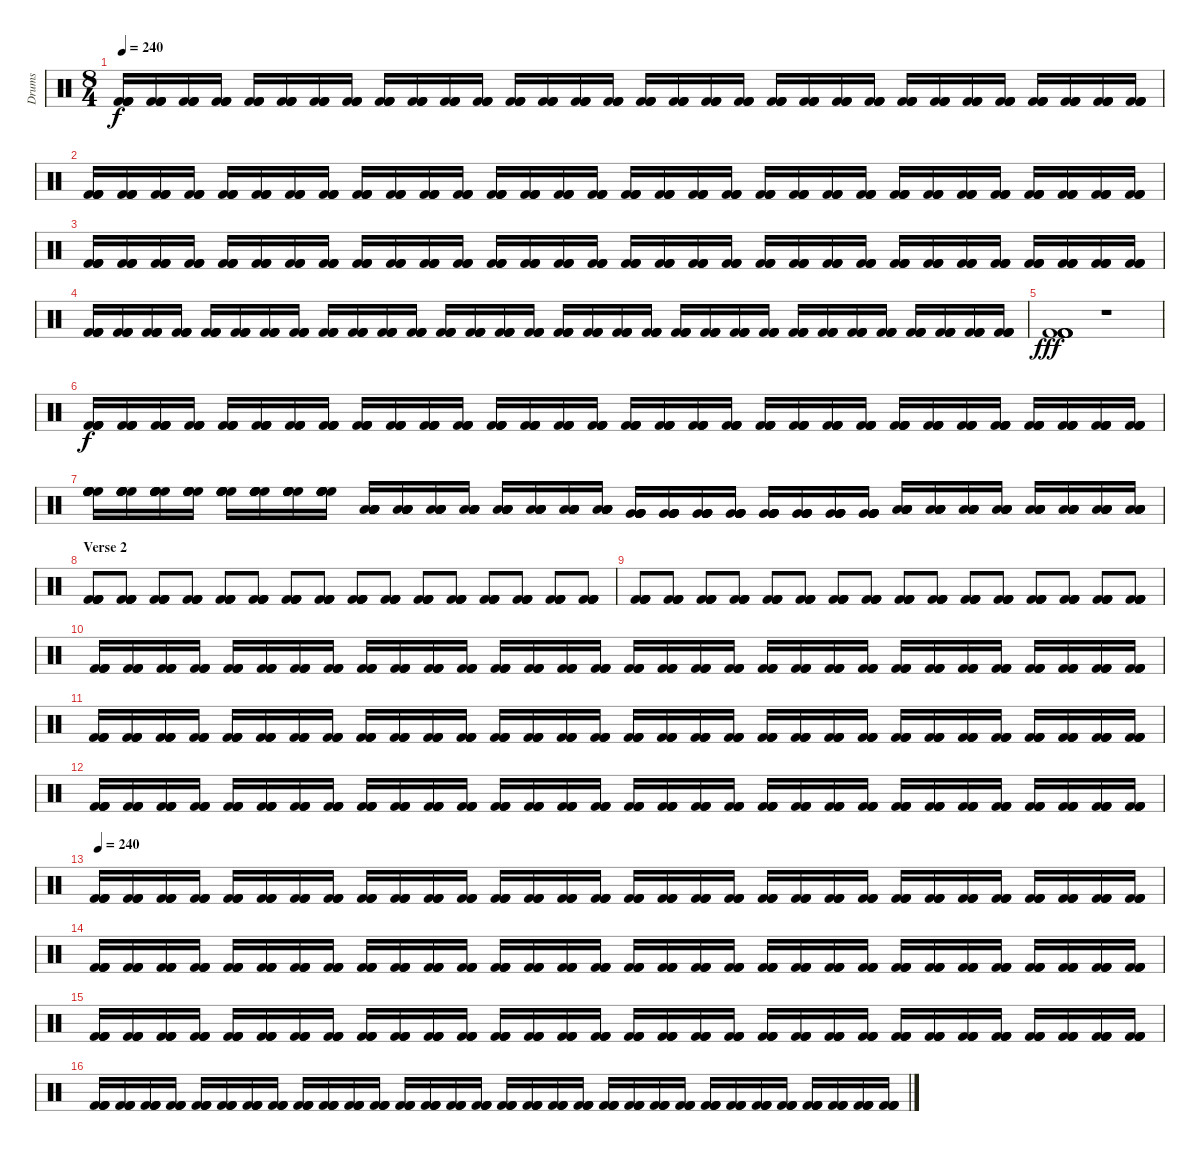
\track ("Drums" "Drums") {instrument percussion}
\staff {score}
\articulation defaults
\ts (8 4)
\tempo 240
\clef neutral
\ks c
("Kick (hit) 2" "Kick (hit) 2" "Kick (hit) 2" "Kick (hit) 2").16{dy f} ("Kick (hit) 2" "Kick (hit) 2" "Kick (hit) 2" "Kick (hit) 2").16 ("Kick (hit) 2" "Kick (hit) 2" "Kick (hit) 2" "Kick (hit) 2").16 ("Kick (hit) 2" "Kick (hit) 2" "Kick (hit) 2" "Kick (hit) 2").16 ("Kick (hit) 2" "Kick (hit) 2" "Kick (hit) 2" "Kick (hit) 2").16 ("Kick (hit) 2" "Kick (hit) 2" "Kick (hit) 2" "Kick (hit) 2").16 ("Kick (hit) 2" "Kick (hit) 2" "Kick (hit) 2" "Kick (hit) 2").16 ("Kick (hit) 2" "Kick (hit) 2" "Kick (hit) 2" "Kick (hit) 2").16 ("Kick (hit) 2" "Kick (hit) 2" "Kick (hit) 2" "Kick (hit) 2").16 ("Kick (hit) 2" "Kick (hit) 2" "Kick (hit) 2" "Kick (hit) 2").16 ("Kick (hit) 2" "Kick (hit) 2" "Kick (hit) 2" "Kick (hit) 2").16 ("Kick (hit) 2" "Kick (hit) 2" "Kick (hit) 2" "Kick (hit) 2").16 ("Kick (hit) 2" "Kick (hit) 2" "Kick (hit) 2" "Kick (hit) 2").16 ("Kick (hit) 2" "Kick (hit) 2" "Kick (hit) 2" "Kick (hit) 2").16 ("Kick (hit) 2" "Kick (hit) 2" "Kick (hit) 2" "Kick (hit) 2").16 ("Kick (hit) 2" "Kick (hit) 2" "Kick (hit) 2" "Kick (hit) 2").16 ("Kick (hit) 2" "Kick (hit) 2" "Kick (hit) 2" "Kick (hit) 2").16 ("Kick (hit) 2" "Kick (hit) 2" "Kick (hit) 2" "Kick (hit) 2").16 ("Kick (hit) 2" "Kick (hit) 2" "Kick (hit) 2" "Kick (hit) 2").16 ("Kick (hit) 2" "Kick (hit) 2" "Kick (hit) 2" "Kick (hit) 2").16 ("Kick (hit) 2" "Kick (hit) 2" "Kick (hit) 2" "Kick (hit) 2").16 ("Kick (hit) 2" "Kick (hit) 2" "Kick (hit) 2" "Kick (hit) 2").16 ("Kick (hit) 2" "Kick (hit) 2" "Kick (hit) 2" "Kick (hit) 2").16 ("Kick (hit) 2" "Kick (hit) 2" "Kick (hit) 2" "Kick (hit) 2").16 ("Kick (hit) 2" "Kick (hit) 2" "Kick (hit) 2" "Kick (hit) 2").16 ("Kick (hit) 2" "Kick (hit) 2" "Kick (hit) 2" "Kick (hit) 2").16 ("Kick (hit) 2" "Kick (hit) 2" "Kick (hit) 2" "Kick (hit) 2").16 ("Kick (hit) 2" "Kick (hit) 2" "Kick (hit) 2" "Kick (hit) 2").16 ("Kick (hit) 2" "Kick (hit) 2" "Kick (hit) 2" "Kick (hit) 2").16 ("Kick (hit) 2" "Kick (hit) 2" "Kick (hit) 2" "Kick (hit) 2").16 ("Kick (hit) 2" "Kick (hit) 2" "Kick (hit) 2" "Kick (hit) 2").16 ("Kick (hit) 2" "Kick (hit) 2" "Kick (hit) 2" "Kick (hit) 2").16 |
("Kick (hit) 2" "Kick (hit) 2" "Kick (hit) 2" "Kick (hit) 2").16 ("Kick (hit) 2" "Kick (hit) 2" "Kick (hit) 2" "Kick (hit) 2").16 ("Kick (hit) 2" "Kick (hit) 2" "Kick (hit) 2" "Kick (hit) 2").16 ("Kick (hit) 2" "Kick (hit) 2" "Kick (hit) 2" "Kick (hit) 2").16 ("Kick (hit) 2" "Kick (hit) 2" "Kick (hit) 2" "Kick (hit) 2").16 ("Kick (hit) 2" "Kick (hit) 2" "Kick (hit) 2" "Kick (hit) 2").16 ("Kick (hit) 2" "Kick (hit) 2" "Kick (hit) 2" "Kick (hit) 2").16 ("Kick (hit) 2" "Kick (hit) 2" "Kick (hit) 2" "Kick (hit) 2").16 ("Kick (hit) 2" "Kick (hit) 2" "Kick (hit) 2" "Kick (hit) 2").16 ("Kick (hit) 2" "Kick (hit) 2" "Kick (hit) 2" "Kick (hit) 2").16 ("Kick (hit) 2" "Kick (hit) 2" "Kick (hit) 2" "Kick (hit) 2").16 ("Kick (hit) 2" "Kick (hit) 2" "Kick (hit) 2" "Kick (hit) 2").16 ("Kick (hit) 2" "Kick (hit) 2" "Kick (hit) 2" "Kick (hit) 2").16 ("Kick (hit) 2" "Kick (hit) 2" "Kick (hit) 2" "Kick (hit) 2").16 ("Kick (hit) 2" "Kick (hit) 2" "Kick (hit) 2" "Kick (hit) 2").16 ("Kick (hit) 2" "Kick (hit) 2" "Kick (hit) 2" "Kick (hit) 2").16 ("Kick (hit) 2" "Kick (hit) 2" "Kick (hit) 2" "Kick (hit) 2").16 ("Kick (hit) 2" "Kick (hit) 2" "Kick (hit) 2" "Kick (hit) 2").16 ("Kick (hit) 2" "Kick (hit) 2" "Kick (hit) 2" "Kick (hit) 2").16 ("Kick (hit) 2" "Kick (hit) 2" "Kick (hit) 2" "Kick (hit) 2").16 ("Kick (hit) 2" "Kick (hit) 2" "Kick (hit) 2" "Kick (hit) 2").16 ("Kick (hit) 2" "Kick (hit) 2" "Kick (hit) 2" "Kick (hit) 2").16 ("Kick (hit) 2" "Kick (hit) 2" "Kick (hit) 2" "Kick (hit) 2").16 ("Kick (hit) 2" "Kick (hit) 2" "Kick (hit) 2" "Kick (hit) 2").16 ("Kick (hit) 2" "Kick (hit) 2" "Kick (hit) 2" "Kick (hit) 2").16 ("Kick (hit) 2" "Kick (hit) 2" "Kick (hit) 2" "Kick (hit) 2").16 ("Kick (hit) 2" "Kick (hit) 2" "Kick (hit) 2" "Kick (hit) 2").16 ("Kick (hit) 2" "Kick (hit) 2" "Kick (hit) 2" "Kick (hit) 2").16 ("Kick (hit) 2" "Kick (hit) 2" "Kick (hit) 2" "Kick (hit) 2").16 ("Kick (hit) 2" "Kick (hit) 2" "Kick (hit) 2" "Kick (hit) 2").16 ("Kick (hit) 2" "Kick (hit) 2" "Kick (hit) 2" "Kick (hit) 2").16 ("Kick (hit) 2" "Kick (hit) 2" "Kick (hit) 2" "Kick (hit) 2").16 |
("Kick (hit) 2" "Kick (hit) 2" "Kick (hit) 2" "Kick (hit) 2").16 ("Kick (hit) 2" "Kick (hit) 2" "Kick (hit) 2" "Kick (hit) 2").16 ("Kick (hit) 2" "Kick (hit) 2" "Kick (hit) 2" "Kick (hit) 2").16 ("Kick (hit) 2" "Kick (hit) 2" "Kick (hit) 2" "Kick (hit) 2").16 ("Kick (hit) 2" "Kick (hit) 2" "Kick (hit) 2" "Kick (hit) 2").16 ("Kick (hit) 2" "Kick (hit) 2" "Kick (hit) 2" "Kick (hit) 2").16 ("Kick (hit) 2" "Kick (hit) 2" "Kick (hit) 2" "Kick (hit) 2").16 ("Kick (hit) 2" "Kick (hit) 2" "Kick (hit) 2" "Kick (hit) 2").16 ("Kick (hit) 2" "Kick (hit) 2" "Kick (hit) 2" "Kick (hit) 2").16 ("Kick (hit) 2" "Kick (hit) 2" "Kick (hit) 2" "Kick (hit) 2").16 ("Kick (hit) 2" "Kick (hit) 2" "Kick (hit) 2" "Kick (hit) 2").16 ("Kick (hit) 2" "Kick (hit) 2" "Kick (hit) 2" "Kick (hit) 2").16 ("Kick (hit) 2" "Kick (hit) 2" "Kick (hit) 2" "Kick (hit) 2").16 ("Kick (hit) 2" "Kick (hit) 2" "Kick (hit) 2" "Kick (hit) 2").16 ("Kick (hit) 2" "Kick (hit) 2" "Kick (hit) 2" "Kick (hit) 2").16 ("Kick (hit) 2" "Kick (hit) 2" "Kick (hit) 2" "Kick (hit) 2").16 ("Kick (hit) 2" "Kick (hit) 2" "Kick (hit) 2" "Kick (hit) 2").16 ("Kick (hit) 2" "Kick (hit) 2" "Kick (hit) 2" "Kick (hit) 2").16 ("Kick (hit) 2" "Kick (hit) 2" "Kick (hit) 2" "Kick (hit) 2").16 ("Kick (hit) 2" "Kick (hit) 2" "Kick (hit) 2" "Kick (hit) 2").16 ("Kick (hit) 2" "Kick (hit) 2" "Kick (hit) 2" "Kick (hit) 2").16 ("Kick (hit) 2" "Kick (hit) 2" "Kick (hit) 2" "Kick (hit) 2").16 ("Kick (hit) 2" "Kick (hit) 2" "Kick (hit) 2" "Kick (hit) 2").16 ("Kick (hit) 2" "Kick (hit) 2" "Kick (hit) 2" "Kick (hit) 2").16 ("Kick (hit) 2" "Kick (hit) 2" "Kick (hit) 2" "Kick (hit) 2").16 ("Kick (hit) 2" "Kick (hit) 2" "Kick (hit) 2" "Kick (hit) 2").16 ("Kick (hit) 2" "Kick (hit) 2" "Kick (hit) 2" "Kick (hit) 2").16 ("Kick (hit) 2" "Kick (hit) 2" "Kick (hit) 2" "Kick (hit) 2").16 ("Kick (hit) 2" "Kick (hit) 2" "Kick (hit) 2" "Kick (hit) 2").16 ("Kick (hit) 2" "Kick (hit) 2" "Kick (hit) 2" "Kick (hit) 2").16 ("Kick (hit) 2" "Kick (hit) 2" "Kick (hit) 2" "Kick (hit) 2").16 ("Kick (hit) 2" "Kick (hit) 2" "Kick (hit) 2" "Kick (hit) 2").16 |
("Kick (hit) 2" "Kick (hit) 2" "Kick (hit) 2" "Kick (hit) 2").16 ("Kick (hit) 2" "Kick (hit) 2" "Kick (hit) 2" "Kick (hit) 2").16 ("Kick (hit) 2" "Kick (hit) 2" "Kick (hit) 2" "Kick (hit) 2").16 ("Kick (hit) 2" "Kick (hit) 2" "Kick (hit) 2" "Kick (hit) 2").16 ("Kick (hit) 2" "Kick (hit) 2" "Kick (hit) 2" "Kick (hit) 2").16 ("Kick (hit) 2" "Kick (hit) 2" "Kick (hit) 2" "Kick (hit) 2").16 ("Kick (hit) 2" "Kick (hit) 2" "Kick (hit) 2" "Kick (hit) 2").16 ("Kick (hit) 2" "Kick (hit) 2" "Kick (hit) 2" "Kick (hit) 2").16 ("Kick (hit) 2" "Kick (hit) 2" "Kick (hit) 2" "Kick (hit) 2").16 ("Kick (hit) 2" "Kick (hit) 2" "Kick (hit) 2" "Kick (hit) 2").16 ("Kick (hit) 2" "Kick (hit) 2" "Kick (hit) 2" "Kick (hit) 2").16 ("Kick (hit) 2" "Kick (hit) 2" "Kick (hit) 2" "Kick (hit) 2").16 ("Kick (hit) 2" "Kick (hit) 2" "Kick (hit) 2" "Kick (hit) 2").16 ("Kick (hit) 2" "Kick (hit) 2" "Kick (hit) 2" "Kick (hit) 2").16 ("Kick (hit) 2" "Kick (hit) 2" "Kick (hit) 2" "Kick (hit) 2").16 ("Kick (hit) 2" "Kick (hit) 2" "Kick (hit) 2" "Kick (hit) 2").16 ("Kick (hit) 2" "Kick (hit) 2" "Kick (hit) 2" "Kick (hit) 2").16 ("Kick (hit) 2" "Kick (hit) 2" "Kick (hit) 2" "Kick (hit) 2").16 ("Kick (hit) 2" "Kick (hit) 2" "Kick (hit) 2" "Kick (hit) 2").16 ("Kick (hit) 2" "Kick (hit) 2" "Kick (hit) 2" "Kick (hit) 2").16 ("Kick (hit) 2" "Kick (hit) 2" "Kick (hit) 2" "Kick (hit) 2").16 ("Kick (hit) 2" "Kick (hit) 2" "Kick (hit) 2" "Kick (hit) 2").16 ("Kick (hit) 2" "Kick (hit) 2" "Kick (hit) 2" "Kick (hit) 2").16 ("Kick (hit) 2" "Kick (hit) 2" "Kick (hit) 2" "Kick (hit) 2").16 ("Kick (hit) 2" "Kick (hit) 2" "Kick (hit) 2" "Kick (hit) 2").16 ("Kick (hit) 2" "Kick (hit) 2" "Kick (hit) 2" "Kick (hit) 2").16 ("Kick (hit) 2" "Kick (hit) 2" "Kick (hit) 2" "Kick (hit) 2").16 ("Kick (hit) 2" "Kick (hit) 2" "Kick (hit) 2" "Kick (hit) 2").16 ("Kick (hit) 2" "Kick (hit) 2" "Kick (hit) 2" "Kick (hit) 2").16 ("Kick (hit) 2" "Kick (hit) 2" "Kick (hit) 2" "Kick (hit) 2").16 ("Kick (hit) 2" "Kick (hit) 2" "Kick (hit) 2" "Kick (hit) 2").16 ("Kick (hit) 2" "Kick (hit) 2" "Kick (hit) 2" "Kick (hit) 2").16 |
("Kick (hit) 2" "Kick (hit) 2" "Kick (hit) 2" "Kick (hit) 2" "Kick (hit) 2" "Kick (hit) 2").1{dy fff} r.1 |
("Kick (hit) 2" "Kick (hit) 2" "Kick (hit) 2" "Kick (hit) 2" "Kick (hit) 2").16{dy f} ("Kick (hit) 2" "Kick (hit) 2" "Kick (hit) 2" "Kick (hit) 2" "Kick (hit) 2").16 ("Kick (hit) 2" "Kick (hit) 2" "Kick (hit) 2" "Kick (hit) 2" "Kick (hit) 2").16 ("Kick (hit) 2" "Kick (hit) 2" "Kick (hit) 2" "Kick (hit) 2" "Kick (hit) 2").16 ("Kick (hit) 2" "Kick (hit) 2" "Kick (hit) 2" "Kick (hit) 2" "Kick (hit) 2").16 ("Kick (hit) 2" "Kick (hit) 2" "Kick (hit) 2" "Kick (hit) 2" "Kick (hit) 2").16 ("Kick (hit) 2" "Kick (hit) 2" "Kick (hit) 2" "Kick (hit) 2" "Kick (hit) 2").16 ("Kick (hit) 2" "Kick (hit) 2" "Kick (hit) 2" "Kick (hit) 2" "Kick (hit) 2").16 ("Kick (hit) 2" "Kick (hit) 2" "Kick (hit) 2" "Kick (hit) 2" "Kick (hit) 2").16 ("Kick (hit) 2" "Kick (hit) 2" "Kick (hit) 2" "Kick (hit) 2" "Kick (hit) 2").16 ("Kick (hit) 2" "Kick (hit) 2" "Kick (hit) 2" "Kick (hit) 2" "Kick (hit) 2").16 ("Kick (hit) 2" "Kick (hit) 2" "Kick (hit) 2" "Kick (hit) 2" "Kick (hit) 2").16 ("Kick (hit) 2" "Kick (hit) 2" "Kick (hit) 2" "Kick (hit) 2" "Kick (hit) 2").16 ("Kick (hit) 2" "Kick (hit) 2" "Kick (hit) 2" "Kick (hit) 2" "Kick (hit) 2").16 ("Kick (hit) 2" "Kick (hit) 2" "Kick (hit) 2" "Kick (hit) 2" "Kick (hit) 2").16 ("Kick (hit) 2" "Kick (hit) 2" "Kick (hit) 2" "Kick (hit) 2" "Kick (hit) 2").16 ("Kick (hit) 2" "Kick (hit) 2" "Kick (hit) 2" "Kick (hit) 2" "Kick (hit) 2").16 ("Kick (hit) 2" "Kick (hit) 2" "Kick (hit) 2" "Kick (hit) 2" "Kick (hit) 2").16 ("Kick (hit) 2" "Kick (hit) 2" "Kick (hit) 2" "Kick (hit) 2" "Kick (hit) 2").16 ("Kick (hit) 2" "Kick (hit) 2" "Kick (hit) 2" "Kick (hit) 2" "Kick (hit) 2").16 ("Kick (hit) 2" "Kick (hit) 2" "Kick (hit) 2" "Kick (hit) 2" "Kick (hit) 2").16 ("Kick (hit) 2" "Kick (hit) 2" "Kick (hit) 2" "Kick (hit) 2" "Kick (hit) 2").16 ("Kick (hit) 2" "Kick (hit) 2" "Kick (hit) 2" "Kick (hit) 2" "Kick (hit) 2").16 ("Kick (hit) 2" "Kick (hit) 2" "Kick (hit) 2" "Kick (hit) 2" "Kick (hit) 2").16 ("Kick (hit) 2" "Kick (hit) 2" "Kick (hit) 2" "Kick (hit) 2" "Kick (hit) 2").16 ("Kick (hit) 2" "Kick (hit) 2" "Kick (hit) 2" "Kick (hit) 2" "Kick (hit) 2").16 ("Kick (hit) 2" "Kick (hit) 2" "Kick (hit) 2" "Kick (hit) 2" "Kick (hit) 2").16 ("Kick (hit) 2" "Kick (hit) 2" "Kick (hit) 2" "Kick (hit) 2" "Kick (hit) 2").16 ("Kick (hit) 2" "Kick (hit) 2" "Kick (hit) 2" "Kick (hit) 2" "Kick (hit) 2").16 ("Kick (hit) 2" "Kick (hit) 2" "Kick (hit) 2" "Kick (hit) 2" "Kick (hit) 2").16 ("Kick (hit) 2" "Kick (hit) 2" "Kick (hit) 2" "Kick (hit) 2" "Kick (hit) 2").16 ("Kick (hit) 2" "Kick (hit) 2" "Kick (hit) 2" "Kick (hit) 2" "Kick (hit) 2").16 |
("High Floor Tom (hit)" "High Floor Tom (hit)" "High Floor Tom (hit)" "High Floor Tom (hit)" "High Floor Tom (hit)" "High Floor Tom (hit)").16 ("High Floor Tom (hit)" "High Floor Tom (hit)" "High Floor Tom (hit)" "High Floor Tom (hit)" "High Floor Tom (hit)" "High Floor Tom (hit)").16 ("High Floor Tom (hit)" "High Floor Tom (hit)" "High Floor Tom (hit)" "High Floor Tom (hit)" "High Floor Tom (hit)" "High Floor Tom (hit)").16 ("High Floor Tom (hit)" "High Floor Tom (hit)" "High Floor Tom (hit)" "High Floor Tom (hit)" "High Floor Tom (hit)" "High Floor Tom (hit)").16 ("High Floor Tom (hit)" "High Floor Tom (hit)" "High Floor Tom (hit)" "High Floor Tom (hit)" "High Floor Tom (hit)" "High Floor Tom (hit)").16 ("High Floor Tom (hit)" "High Floor Tom (hit)" "High Floor Tom (hit)" "High Floor Tom (hit)" "High Floor Tom (hit)" "High Floor Tom (hit)").16 ("High Floor Tom (hit)" "High Floor Tom (hit)" "High Floor Tom (hit)" "High Floor Tom (hit)" "High Floor Tom (hit)" "High Floor Tom (hit)").16 ("High Floor Tom (hit)" "High Floor Tom (hit)" "High Floor Tom (hit)" "High Floor Tom (hit)" "High Floor Tom (hit)" "High Floor Tom (hit)").16 ("Low Tom (hit)" "Low Tom (hit)" "Low Tom (hit)" "Low Tom (hit)" "Low Tom (hit)" "Low Tom (hit)").16 ("Low Tom (hit)" "Low Tom (hit)" "Low Tom (hit)" "Low Tom (hit)" "Low Tom (hit)" "Low Tom (hit)").16 ("Low Tom (hit)" "Low Tom (hit)" "Low Tom (hit)" "Low Tom (hit)" "Low Tom (hit)" "Low Tom (hit)").16 ("Low Tom (hit)" "Low Tom (hit)" "Low Tom (hit)" "Low Tom (hit)" "Low Tom (hit)" "Low Tom (hit)").16 ("Low Tom (hit)" "Low Tom (hit)" "Low Tom (hit)" "Low Tom (hit)" "Low Tom (hit)" "Low Tom (hit)").16 ("Low Tom (hit)" "Low Tom (hit)" "Low Tom (hit)" "Low Tom (hit)" "Low Tom (hit)" "Low Tom (hit)").16 ("Low Tom (hit)" "Low Tom (hit)" "Low Tom (hit)" "Low Tom (hit)" "Low Tom (hit)" "Low Tom (hit)").16 ("Low Tom (hit)" "Low Tom (hit)" "Low Tom (hit)" "Low Tom (hit)" "Low Tom (hit)" "Low Tom (hit)").16 ("Very Low Tom (hit)" "Very Low Tom (hit)" "Very Low Tom (hit)" "Very Low Tom (hit)" "Very Low Tom (hit)" "Very Low Tom (hit)").16 ("Very Low Tom (hit)" "Very Low Tom (hit)" "Very Low Tom (hit)" "Very Low Tom (hit)" "Very Low Tom (hit)" "Very Low Tom (hit)").16 ("Very Low Tom (hit)" "Very Low Tom (hit)" "Very Low Tom (hit)" "Very Low Tom (hit)" "Very Low Tom (hit)" "Very Low Tom (hit)").16 ("Very Low Tom (hit)" "Very Low Tom (hit)" "Very Low Tom (hit)" "Very Low Tom (hit)" "Very Low Tom (hit)" "Very Low Tom (hit)").16 ("Very Low Tom (hit)" "Very Low Tom (hit)" "Very Low Tom (hit)" "Very Low Tom (hit)" "Very Low Tom (hit)" "Very Low Tom (hit)").16 ("Very Low Tom (hit)" "Very Low Tom (hit)" "Very Low Tom (hit)" "Very Low Tom (hit)" "Very Low Tom (hit)" "Very Low Tom (hit)").16 ("Very Low Tom (hit)" "Very Low Tom (hit)" "Very Low Tom (hit)" "Very Low Tom (hit)" "Very Low Tom (hit)" "Very Low Tom (hit)").16 ("Very Low Tom (hit)" "Very Low Tom (hit)" "Very Low Tom (hit)" "Very Low Tom (hit)" "Very Low Tom (hit)" "Very Low Tom (hit)").16 ("Low Floor Tom (hit)" "Low Floor Tom (hit)" "Low Floor Tom (hit)" "Low Floor Tom (hit)" "Low Floor Tom (hit)" "Low Floor Tom (hit)").16 ("Low Floor Tom (hit)" "Low Floor Tom (hit)" "Low Floor Tom (hit)" "Low Floor Tom (hit)" "Low Floor Tom (hit)" "Low Floor Tom (hit)").16 ("Low Floor Tom (hit)" "Low Floor Tom (hit)" "Low Floor Tom (hit)" "Low Floor Tom (hit)" "Low Floor Tom (hit)" "Low Floor Tom (hit)").16 ("Low Floor Tom (hit)" "Low Floor Tom (hit)" "Low Floor Tom (hit)" "Low Floor Tom (hit)" "Low Floor Tom (hit)" "Low Floor Tom (hit)").16 ("Low Floor Tom (hit)" "Low Floor Tom (hit)" "Low Floor Tom (hit)" "Low Floor Tom (hit)" "Low Floor Tom (hit)" "Low Floor Tom (hit)").16 ("Low Floor Tom (hit)" "Low Floor Tom (hit)" "Low Floor Tom (hit)" "Low Floor Tom (hit)" "Low Floor Tom (hit)" "Low Floor Tom (hit)").16 ("Low Floor Tom (hit)" "Low Floor Tom (hit)" "Low Floor Tom (hit)" "Low Floor Tom (hit)" "Low Floor Tom (hit)" "Low Floor Tom (hit)").16 ("Low Floor Tom (hit)" "Low Floor Tom (hit)" "Low Floor Tom (hit)" "Low Floor Tom (hit)" "Low Floor Tom (hit)" "Low Floor Tom (hit)").16 |
\section ("" "Verse 2")
("Kick (hit) 2" "Kick (hit) 2" "Kick (hit) 2" "Kick (hit) 2" "Kick (hit) 2").8 ("Kick (hit) 2" "Kick (hit) 2" "Kick (hit) 2" "Kick (hit) 2" "Kick (hit) 2").8 ("Kick (hit) 2" "Kick (hit) 2" "Kick (hit) 2" "Kick (hit) 2" "Kick (hit) 2").8 ("Kick (hit) 2" "Kick (hit) 2" "Kick (hit) 2" "Kick (hit) 2" "Kick (hit) 2").8 ("Kick (hit) 2" "Kick (hit) 2" "Kick (hit) 2" "Kick (hit) 2" "Kick (hit) 2").8 ("Kick (hit) 2" "Kick (hit) 2" "Kick (hit) 2" "Kick (hit) 2" "Kick (hit) 2").8 ("Kick (hit) 2" "Kick (hit) 2" "Kick (hit) 2" "Kick (hit) 2" "Kick (hit) 2").8 ("Kick (hit) 2" "Kick (hit) 2" "Kick (hit) 2" "Kick (hit) 2" "Kick (hit) 2").8 ("Kick (hit) 2" "Kick (hit) 2" "Kick (hit) 2" "Kick (hit) 2" "Kick (hit) 2").8 ("Kick (hit) 2" "Kick (hit) 2" "Kick (hit) 2" "Kick (hit) 2" "Kick (hit) 2").8 ("Kick (hit) 2" "Kick (hit) 2" "Kick (hit) 2" "Kick (hit) 2" "Kick (hit) 2").8 ("Kick (hit) 2" "Kick (hit) 2" "Kick (hit) 2" "Kick (hit) 2" "Kick (hit) 2").8 ("Kick (hit) 2" "Kick (hit) 2" "Kick (hit) 2" "Kick (hit) 2" "Kick (hit) 2").8 ("Kick (hit) 2" "Kick (hit) 2" "Kick (hit) 2" "Kick (hit) 2" "Kick (hit) 2").8 ("Kick (hit) 2" "Kick (hit) 2" "Kick (hit) 2" "Kick (hit) 2" "Kick (hit) 2").8 ("Kick (hit) 2" "Kick (hit) 2" "Kick (hit) 2" "Kick (hit) 2" "Kick (hit) 2").8 |
("Kick (hit) 2" "Kick (hit) 2" "Kick (hit) 2" "Kick (hit) 2" "Kick (hit) 2").8 ("Kick (hit) 2" "Kick (hit) 2" "Kick (hit) 2" "Kick (hit) 2" "Kick (hit) 2").8 ("Kick (hit) 2" "Kick (hit) 2" "Kick (hit) 2" "Kick (hit) 2" "Kick (hit) 2").8 ("Kick (hit) 2" "Kick (hit) 2" "Kick (hit) 2" "Kick (hit) 2" "Kick (hit) 2").8 ("Kick (hit) 2" "Kick (hit) 2" "Kick (hit) 2" "Kick (hit) 2" "Kick (hit) 2").8 ("Kick (hit) 2" "Kick (hit) 2" "Kick (hit) 2" "Kick (hit) 2" "Kick (hit) 2").8 ("Kick (hit) 2" "Kick (hit) 2" "Kick (hit) 2" "Kick (hit) 2" "Kick (hit) 2").8 ("Kick (hit) 2" "Kick (hit) 2" "Kick (hit) 2" "Kick (hit) 2" "Kick (hit) 2").8 ("Kick (hit) 2" "Kick (hit) 2" "Kick (hit) 2" "Kick (hit) 2" "Kick (hit) 2").8 ("Kick (hit) 2" "Kick (hit) 2" "Kick (hit) 2" "Kick (hit) 2" "Kick (hit) 2").8 ("Kick (hit) 2" "Kick (hit) 2" "Kick (hit) 2" "Kick (hit) 2" "Kick (hit) 2").8 ("Kick (hit) 2" "Kick (hit) 2" "Kick (hit) 2" "Kick (hit) 2" "Kick (hit) 2").8 ("Kick (hit) 2" "Kick (hit) 2" "Kick (hit) 2" "Kick (hit) 2" "Kick (hit) 2").8 ("Kick (hit) 2" "Kick (hit) 2" "Kick (hit) 2" "Kick (hit) 2" "Kick (hit) 2").8 ("Kick (hit) 2" "Kick (hit) 2" "Kick (hit) 2" "Kick (hit) 2" "Kick (hit) 2").8 ("Kick (hit) 2" "Kick (hit) 2" "Kick (hit) 2" "Kick (hit) 2" "Kick (hit) 2").8 |
("Kick (hit) 2" "Kick (hit) 2" "Kick (hit) 2" "Kick (hit) 2").16 ("Kick (hit) 2" "Kick (hit) 2" "Kick (hit) 2" "Kick (hit) 2").16 ("Kick (hit) 2" "Kick (hit) 2" "Kick (hit) 2" "Kick (hit) 2").16 ("Kick (hit) 2" "Kick (hit) 2" "Kick (hit) 2" "Kick (hit) 2").16 ("Kick (hit) 2" "Kick (hit) 2" "Kick (hit) 2" "Kick (hit) 2").16 ("Kick (hit) 2" "Kick (hit) 2" "Kick (hit) 2" "Kick (hit) 2").16 ("Kick (hit) 2" "Kick (hit) 2" "Kick (hit) 2" "Kick (hit) 2").16 ("Kick (hit) 2" "Kick (hit) 2" "Kick (hit) 2" "Kick (hit) 2").16 ("Kick (hit) 2" "Kick (hit) 2" "Kick (hit) 2" "Kick (hit) 2").16 ("Kick (hit) 2" "Kick (hit) 2" "Kick (hit) 2" "Kick (hit) 2").16 ("Kick (hit) 2" "Kick (hit) 2" "Kick (hit) 2" "Kick (hit) 2").16 ("Kick (hit) 2" "Kick (hit) 2" "Kick (hit) 2" "Kick (hit) 2").16 ("Kick (hit) 2" "Kick (hit) 2" "Kick (hit) 2" "Kick (hit) 2").16 ("Kick (hit) 2" "Kick (hit) 2" "Kick (hit) 2" "Kick (hit) 2").16 ("Kick (hit) 2" "Kick (hit) 2" "Kick (hit) 2" "Kick (hit) 2").16 ("Kick (hit) 2" "Kick (hit) 2" "Kick (hit) 2" "Kick (hit) 2").16 ("Kick (hit) 2" "Kick (hit) 2" "Kick (hit) 2" "Kick (hit) 2").16 ("Kick (hit) 2" "Kick (hit) 2" "Kick (hit) 2" "Kick (hit) 2").16 ("Kick (hit) 2" "Kick (hit) 2" "Kick (hit) 2" "Kick (hit) 2").16 ("Kick (hit) 2" "Kick (hit) 2" "Kick (hit) 2" "Kick (hit) 2").16 ("Kick (hit) 2" "Kick (hit) 2" "Kick (hit) 2" "Kick (hit) 2").16 ("Kick (hit) 2" "Kick (hit) 2" "Kick (hit) 2" "Kick (hit) 2").16 ("Kick (hit) 2" "Kick (hit) 2" "Kick (hit) 2" "Kick (hit) 2").16 ("Kick (hit) 2" "Kick (hit) 2" "Kick (hit) 2" "Kick (hit) 2").16 ("Kick (hit) 2" "Kick (hit) 2" "Kick (hit) 2" "Kick (hit) 2").16 ("Kick (hit) 2" "Kick (hit) 2" "Kick (hit) 2" "Kick (hit) 2").16 ("Kick (hit) 2" "Kick (hit) 2" "Kick (hit) 2" "Kick (hit) 2").16 ("Kick (hit) 2" "Kick (hit) 2" "Kick (hit) 2" "Kick (hit) 2").16 ("Kick (hit) 2" "Kick (hit) 2" "Kick (hit) 2" "Kick (hit) 2").16 ("Kick (hit) 2" "Kick (hit) 2" "Kick (hit) 2" "Kick (hit) 2").16 ("Kick (hit) 2" "Kick (hit) 2" "Kick (hit) 2" "Kick (hit) 2").16 ("Kick (hit) 2" "Kick (hit) 2" "Kick (hit) 2" "Kick (hit) 2").16 |
("Kick (hit) 2" "Kick (hit) 2" "Kick (hit) 2" "Kick (hit) 2").16 ("Kick (hit) 2" "Kick (hit) 2" "Kick (hit) 2" "Kick (hit) 2").16 ("Kick (hit) 2" "Kick (hit) 2" "Kick (hit) 2" "Kick (hit) 2").16 ("Kick (hit) 2" "Kick (hit) 2" "Kick (hit) 2" "Kick (hit) 2").16 ("Kick (hit) 2" "Kick (hit) 2" "Kick (hit) 2" "Kick (hit) 2").16 ("Kick (hit) 2" "Kick (hit) 2" "Kick (hit) 2" "Kick (hit) 2").16 ("Kick (hit) 2" "Kick (hit) 2" "Kick (hit) 2" "Kick (hit) 2").16 ("Kick (hit) 2" "Kick (hit) 2" "Kick (hit) 2" "Kick (hit) 2").16 ("Kick (hit) 2" "Kick (hit) 2" "Kick (hit) 2" "Kick (hit) 2").16 ("Kick (hit) 2" "Kick (hit) 2" "Kick (hit) 2" "Kick (hit) 2").16 ("Kick (hit) 2" "Kick (hit) 2" "Kick (hit) 2" "Kick (hit) 2").16 ("Kick (hit) 2" "Kick (hit) 2" "Kick (hit) 2" "Kick (hit) 2").16 ("Kick (hit) 2" "Kick (hit) 2" "Kick (hit) 2" "Kick (hit) 2").16 ("Kick (hit) 2" "Kick (hit) 2" "Kick (hit) 2" "Kick (hit) 2").16 ("Kick (hit) 2" "Kick (hit) 2" "Kick (hit) 2" "Kick (hit) 2").16 ("Kick (hit) 2" "Kick (hit) 2" "Kick (hit) 2" "Kick (hit) 2").16 ("Kick (hit) 2" "Kick (hit) 2" "Kick (hit) 2" "Kick (hit) 2").16 ("Kick (hit) 2" "Kick (hit) 2" "Kick (hit) 2" "Kick (hit) 2").16 ("Kick (hit) 2" "Kick (hit) 2" "Kick (hit) 2" "Kick (hit) 2").16 ("Kick (hit) 2" "Kick (hit) 2" "Kick (hit) 2" "Kick (hit) 2").16 ("Kick (hit) 2" "Kick (hit) 2" "Kick (hit) 2" "Kick (hit) 2").16 ("Kick (hit) 2" "Kick (hit) 2" "Kick (hit) 2" "Kick (hit) 2").16 ("Kick (hit) 2" "Kick (hit) 2" "Kick (hit) 2" "Kick (hit) 2").16 ("Kick (hit) 2" "Kick (hit) 2" "Kick (hit) 2" "Kick (hit) 2").16 ("Kick (hit) 2" "Kick (hit) 2" "Kick (hit) 2" "Kick (hit) 2").16 ("Kick (hit) 2" "Kick (hit) 2" "Kick (hit) 2" "Kick (hit) 2").16 ("Kick (hit) 2" "Kick (hit) 2" "Kick (hit) 2" "Kick (hit) 2").16 ("Kick (hit) 2" "Kick (hit) 2" "Kick (hit) 2" "Kick (hit) 2").16 ("Kick (hit) 2" "Kick (hit) 2" "Kick (hit) 2" "Kick (hit) 2").16 ("Kick (hit) 2" "Kick (hit) 2" "Kick (hit) 2" "Kick (hit) 2").16 ("Kick (hit) 2" "Kick (hit) 2" "Kick (hit) 2" "Kick (hit) 2").16 ("Kick (hit) 2" "Kick (hit) 2" "Kick (hit) 2" "Kick (hit) 2").16 |
("Kick (hit) 2" "Kick (hit) 2" "Kick (hit) 2" "Kick (hit) 2").16 ("Kick (hit) 2" "Kick (hit) 2" "Kick (hit) 2" "Kick (hit) 2").16 ("Kick (hit) 2" "Kick (hit) 2" "Kick (hit) 2" "Kick (hit) 2").16 ("Kick (hit) 2" "Kick (hit) 2" "Kick (hit) 2" "Kick (hit) 2").16 ("Kick (hit) 2" "Kick (hit) 2" "Kick (hit) 2" "Kick (hit) 2").16 ("Kick (hit) 2" "Kick (hit) 2" "Kick (hit) 2" "Kick (hit) 2").16 ("Kick (hit) 2" "Kick (hit) 2" "Kick (hit) 2" "Kick (hit) 2").16 ("Kick (hit) 2" "Kick (hit) 2" "Kick (hit) 2" "Kick (hit) 2").16 ("Kick (hit) 2" "Kick (hit) 2" "Kick (hit) 2" "Kick (hit) 2").16 ("Kick (hit) 2" "Kick (hit) 2" "Kick (hit) 2" "Kick (hit) 2").16 ("Kick (hit) 2" "Kick (hit) 2" "Kick (hit) 2" "Kick (hit) 2").16 ("Kick (hit) 2" "Kick (hit) 2" "Kick (hit) 2" "Kick (hit) 2").16 ("Kick (hit) 2" "Kick (hit) 2" "Kick (hit) 2" "Kick (hit) 2").16 ("Kick (hit) 2" "Kick (hit) 2" "Kick (hit) 2" "Kick (hit) 2").16 ("Kick (hit) 2" "Kick (hit) 2" "Kick (hit) 2" "Kick (hit) 2").16 ("Kick (hit) 2" "Kick (hit) 2" "Kick (hit) 2" "Kick (hit) 2").16 ("Kick (hit) 2" "Kick (hit) 2" "Kick (hit) 2" "Kick (hit) 2").16 ("Kick (hit) 2" "Kick (hit) 2" "Kick (hit) 2" "Kick (hit) 2").16 ("Kick (hit) 2" "Kick (hit) 2" "Kick (hit) 2" "Kick (hit) 2").16 ("Kick (hit) 2" "Kick (hit) 2" "Kick (hit) 2" "Kick (hit) 2").16 ("Kick (hit) 2" "Kick (hit) 2" "Kick (hit) 2" "Kick (hit) 2").16 ("Kick (hit) 2" "Kick (hit) 2" "Kick (hit) 2" "Kick (hit) 2").16 ("Kick (hit) 2" "Kick (hit) 2" "Kick (hit) 2" "Kick (hit) 2").16 ("Kick (hit) 2" "Kick (hit) 2" "Kick (hit) 2" "Kick (hit) 2").16 ("Kick (hit) 2" "Kick (hit) 2" "Kick (hit) 2" "Kick (hit) 2").16 ("Kick (hit) 2" "Kick (hit) 2" "Kick (hit) 2" "Kick (hit) 2").16 ("Kick (hit) 2" "Kick (hit) 2" "Kick (hit) 2" "Kick (hit) 2").16 ("Kick (hit) 2" "Kick (hit) 2" "Kick (hit) 2" "Kick (hit) 2").16 ("Kick (hit) 2" "Kick (hit) 2" "Kick (hit) 2" "Kick (hit) 2").16 ("Kick (hit) 2" "Kick (hit) 2" "Kick (hit) 2" "Kick (hit) 2").16 ("Kick (hit) 2" "Kick (hit) 2" "Kick (hit) 2" "Kick (hit) 2").16 ("Kick (hit) 2" "Kick (hit) 2" "Kick (hit) 2" "Kick (hit) 2").16 |
\tempo 240
("Kick (hit) 2" "Kick (hit) 2" "Kick (hit) 2" "Kick (hit) 2").16 ("Kick (hit) 2" "Kick (hit) 2" "Kick (hit) 2" "Kick (hit) 2").16 ("Kick (hit) 2" "Kick (hit) 2" "Kick (hit) 2" "Kick (hit) 2").16 ("Kick (hit) 2" "Kick (hit) 2" "Kick (hit) 2" "Kick (hit) 2").16 ("Kick (hit) 2" "Kick (hit) 2" "Kick (hit) 2" "Kick (hit) 2").16 ("Kick (hit) 2" "Kick (hit) 2" "Kick (hit) 2" "Kick (hit) 2").16 ("Kick (hit) 2" "Kick (hit) 2" "Kick (hit) 2" "Kick (hit) 2").16 ("Kick (hit) 2" "Kick (hit) 2" "Kick (hit) 2" "Kick (hit) 2").16 ("Kick (hit) 2" "Kick (hit) 2" "Kick (hit) 2" "Kick (hit) 2").16 ("Kick (hit) 2" "Kick (hit) 2" "Kick (hit) 2" "Kick (hit) 2").16 ("Kick (hit) 2" "Kick (hit) 2" "Kick (hit) 2" "Kick (hit) 2").16 ("Kick (hit) 2" "Kick (hit) 2" "Kick (hit) 2" "Kick (hit) 2").16 ("Kick (hit) 2" "Kick (hit) 2" "Kick (hit) 2" "Kick (hit) 2").16 ("Kick (hit) 2" "Kick (hit) 2" "Kick (hit) 2" "Kick (hit) 2").16 ("Kick (hit) 2" "Kick (hit) 2" "Kick (hit) 2" "Kick (hit) 2").16 ("Kick (hit) 2" "Kick (hit) 2" "Kick (hit) 2" "Kick (hit) 2").16 ("Kick (hit) 2" "Kick (hit) 2" "Kick (hit) 2" "Kick (hit) 2").16 ("Kick (hit) 2" "Kick (hit) 2" "Kick (hit) 2" "Kick (hit) 2").16 ("Kick (hit) 2" "Kick (hit) 2" "Kick (hit) 2" "Kick (hit) 2").16 ("Kick (hit) 2" "Kick (hit) 2" "Kick (hit) 2" "Kick (hit) 2").16 ("Kick (hit) 2" "Kick (hit) 2" "Kick (hit) 2" "Kick (hit) 2").16 ("Kick (hit) 2" "Kick (hit) 2" "Kick (hit) 2" "Kick (hit) 2").16 ("Kick (hit) 2" "Kick (hit) 2" "Kick (hit) 2" "Kick (hit) 2").16 ("Kick (hit) 2" "Kick (hit) 2" "Kick (hit) 2" "Kick (hit) 2").16 ("Kick (hit) 2" "Kick (hit) 2" "Kick (hit) 2" "Kick (hit) 2").16 ("Kick (hit) 2" "Kick (hit) 2" "Kick (hit) 2" "Kick (hit) 2").16 ("Kick (hit) 2" "Kick (hit) 2" "Kick (hit) 2" "Kick (hit) 2").16 ("Kick (hit) 2" "Kick (hit) 2" "Kick (hit) 2" "Kick (hit) 2").16 ("Kick (hit) 2" "Kick (hit) 2" "Kick (hit) 2" "Kick (hit) 2").16 ("Kick (hit) 2" "Kick (hit) 2" "Kick (hit) 2" "Kick (hit) 2").16 ("Kick (hit) 2" "Kick (hit) 2" "Kick (hit) 2" "Kick (hit) 2").16 ("Kick (hit) 2" "Kick (hit) 2" "Kick (hit) 2" "Kick (hit) 2").16 |
("Kick (hit) 2" "Kick (hit) 2" "Kick (hit) 2" "Kick (hit) 2").16 ("Kick (hit) 2" "Kick (hit) 2" "Kick (hit) 2" "Kick (hit) 2").16 ("Kick (hit) 2" "Kick (hit) 2" "Kick (hit) 2" "Kick (hit) 2").16 ("Kick (hit) 2" "Kick (hit) 2" "Kick (hit) 2" "Kick (hit) 2").16 ("Kick (hit) 2" "Kick (hit) 2" "Kick (hit) 2" "Kick (hit) 2").16 ("Kick (hit) 2" "Kick (hit) 2" "Kick (hit) 2" "Kick (hit) 2").16 ("Kick (hit) 2" "Kick (hit) 2" "Kick (hit) 2" "Kick (hit) 2").16 ("Kick (hit) 2" "Kick (hit) 2" "Kick (hit) 2" "Kick (hit) 2").16 ("Kick (hit) 2" "Kick (hit) 2" "Kick (hit) 2" "Kick (hit) 2").16 ("Kick (hit) 2" "Kick (hit) 2" "Kick (hit) 2" "Kick (hit) 2").16 ("Kick (hit) 2" "Kick (hit) 2" "Kick (hit) 2" "Kick (hit) 2").16 ("Kick (hit) 2" "Kick (hit) 2" "Kick (hit) 2" "Kick (hit) 2").16 ("Kick (hit) 2" "Kick (hit) 2" "Kick (hit) 2" "Kick (hit) 2").16 ("Kick (hit) 2" "Kick (hit) 2" "Kick (hit) 2" "Kick (hit) 2").16 ("Kick (hit) 2" "Kick (hit) 2" "Kick (hit) 2" "Kick (hit) 2").16 ("Kick (hit) 2" "Kick (hit) 2" "Kick (hit) 2" "Kick (hit) 2").16 ("Kick (hit) 2" "Kick (hit) 2" "Kick (hit) 2" "Kick (hit) 2").16 ("Kick (hit) 2" "Kick (hit) 2" "Kick (hit) 2" "Kick (hit) 2").16 ("Kick (hit) 2" "Kick (hit) 2" "Kick (hit) 2" "Kick (hit) 2").16 ("Kick (hit) 2" "Kick (hit) 2" "Kick (hit) 2" "Kick (hit) 2").16 ("Kick (hit) 2" "Kick (hit) 2" "Kick (hit) 2" "Kick (hit) 2").16 ("Kick (hit) 2" "Kick (hit) 2" "Kick (hit) 2" "Kick (hit) 2").16 ("Kick (hit) 2" "Kick (hit) 2" "Kick (hit) 2" "Kick (hit) 2").16 ("Kick (hit) 2" "Kick (hit) 2" "Kick (hit) 2" "Kick (hit) 2").16 ("Kick (hit) 2" "Kick (hit) 2" "Kick (hit) 2" "Kick (hit) 2").16 ("Kick (hit) 2" "Kick (hit) 2" "Kick (hit) 2" "Kick (hit) 2").16 ("Kick (hit) 2" "Kick (hit) 2" "Kick (hit) 2" "Kick (hit) 2").16 ("Kick (hit) 2" "Kick (hit) 2" "Kick (hit) 2" "Kick (hit) 2").16 ("Kick (hit) 2" "Kick (hit) 2" "Kick (hit) 2" "Kick (hit) 2").16 ("Kick (hit) 2" "Kick (hit) 2" "Kick (hit) 2" "Kick (hit) 2").16 ("Kick (hit) 2" "Kick (hit) 2" "Kick (hit) 2" "Kick (hit) 2").16 ("Kick (hit) 2" "Kick (hit) 2" "Kick (hit) 2" "Kick (hit) 2").16 |
("Kick (hit) 2" "Kick (hit) 2" "Kick (hit) 2" "Kick (hit) 2").16 ("Kick (hit) 2" "Kick (hit) 2" "Kick (hit) 2" "Kick (hit) 2").16 ("Kick (hit) 2" "Kick (hit) 2" "Kick (hit) 2" "Kick (hit) 2").16 ("Kick (hit) 2" "Kick (hit) 2" "Kick (hit) 2" "Kick (hit) 2").16 ("Kick (hit) 2" "Kick (hit) 2" "Kick (hit) 2" "Kick (hit) 2").16 ("Kick (hit) 2" "Kick (hit) 2" "Kick (hit) 2" "Kick (hit) 2").16 ("Kick (hit) 2" "Kick (hit) 2" "Kick (hit) 2" "Kick (hit) 2").16 ("Kick (hit) 2" "Kick (hit) 2" "Kick (hit) 2" "Kick (hit) 2").16 ("Kick (hit) 2" "Kick (hit) 2" "Kick (hit) 2" "Kick (hit) 2").16 ("Kick (hit) 2" "Kick (hit) 2" "Kick (hit) 2" "Kick (hit) 2").16 ("Kick (hit) 2" "Kick (hit) 2" "Kick (hit) 2" "Kick (hit) 2").16 ("Kick (hit) 2" "Kick (hit) 2" "Kick (hit) 2" "Kick (hit) 2").16 ("Kick (hit) 2" "Kick (hit) 2" "Kick (hit) 2" "Kick (hit) 2").16 ("Kick (hit) 2" "Kick (hit) 2" "Kick (hit) 2" "Kick (hit) 2").16 ("Kick (hit) 2" "Kick (hit) 2" "Kick (hit) 2" "Kick (hit) 2").16 ("Kick (hit) 2" "Kick (hit) 2" "Kick (hit) 2" "Kick (hit) 2").16 ("Kick (hit) 2" "Kick (hit) 2" "Kick (hit) 2" "Kick (hit) 2").16 ("Kick (hit) 2" "Kick (hit) 2" "Kick (hit) 2" "Kick (hit) 2").16 ("Kick (hit) 2" "Kick (hit) 2" "Kick (hit) 2" "Kick (hit) 2").16 ("Kick (hit) 2" "Kick (hit) 2" "Kick (hit) 2" "Kick (hit) 2").16 ("Kick (hit) 2" "Kick (hit) 2" "Kick (hit) 2" "Kick (hit) 2").16 ("Kick (hit) 2" "Kick (hit) 2" "Kick (hit) 2" "Kick (hit) 2").16 ("Kick (hit) 2" "Kick (hit) 2" "Kick (hit) 2" "Kick (hit) 2").16 ("Kick (hit) 2" "Kick (hit) 2" "Kick (hit) 2" "Kick (hit) 2").16 ("Kick (hit) 2" "Kick (hit) 2" "Kick (hit) 2" "Kick (hit) 2").16 ("Kick (hit) 2" "Kick (hit) 2" "Kick (hit) 2" "Kick (hit) 2").16 ("Kick (hit) 2" "Kick (hit) 2" "Kick (hit) 2" "Kick (hit) 2").16 ("Kick (hit) 2" "Kick (hit) 2" "Kick (hit) 2" "Kick (hit) 2").16 ("Kick (hit) 2" "Kick (hit) 2" "Kick (hit) 2" "Kick (hit) 2").16 ("Kick (hit) 2" "Kick (hit) 2" "Kick (hit) 2" "Kick (hit) 2").16 ("Kick (hit) 2" "Kick (hit) 2" "Kick (hit) 2" "Kick (hit) 2").16 ("Kick (hit) 2" "Kick (hit) 2" "Kick (hit) 2" "Kick (hit) 2").16 |
("Kick (hit) 2" "Kick (hit) 2" "Kick (hit) 2" "Kick (hit) 2").16 ("Kick (hit) 2" "Kick (hit) 2" "Kick (hit) 2" "Kick (hit) 2").16 ("Kick (hit) 2" "Kick (hit) 2" "Kick (hit) 2" "Kick (hit) 2").16 ("Kick (hit) 2" "Kick (hit) 2" "Kick (hit) 2" "Kick (hit) 2").16 ("Kick (hit) 2" "Kick (hit) 2" "Kick (hit) 2" "Kick (hit) 2").16 ("Kick (hit) 2" "Kick (hit) 2" "Kick (hit) 2" "Kick (hit) 2").16 ("Kick (hit) 2" "Kick (hit) 2" "Kick (hit) 2" "Kick (hit) 2").16 ("Kick (hit) 2" "Kick (hit) 2" "Kick (hit) 2" "Kick (hit) 2").16 ("Kick (hit) 2" "Kick (hit) 2" "Kick (hit) 2" "Kick (hit) 2").16 ("Kick (hit) 2" "Kick (hit) 2" "Kick (hit) 2" "Kick (hit) 2").16 ("Kick (hit) 2" "Kick (hit) 2" "Kick (hit) 2" "Kick (hit) 2").16 ("Kick (hit) 2" "Kick (hit) 2" "Kick (hit) 2" "Kick (hit) 2").16 ("Kick (hit) 2" "Kick (hit) 2" "Kick (hit) 2" "Kick (hit) 2").16 ("Kick (hit) 2" "Kick (hit) 2" "Kick (hit) 2" "Kick (hit) 2").16 ("Kick (hit) 2" "Kick (hit) 2" "Kick (hit) 2" "Kick (hit) 2").16 ("Kick (hit) 2" "Kick (hit) 2" "Kick (hit) 2" "Kick (hit) 2").16 ("Kick (hit) 2" "Kick (hit) 2" "Kick (hit) 2" "Kick (hit) 2").16 ("Kick (hit) 2" "Kick (hit) 2" "Kick (hit) 2" "Kick (hit) 2").16 ("Kick (hit) 2" "Kick (hit) 2" "Kick (hit) 2" "Kick (hit) 2").16 ("Kick (hit) 2" "Kick (hit) 2" "Kick (hit) 2" "Kick (hit) 2").16 ("Kick (hit) 2" "Kick (hit) 2" "Kick (hit) 2" "Kick (hit) 2").16 ("Kick (hit) 2" "Kick (hit) 2" "Kick (hit) 2" "Kick (hit) 2").16 ("Kick (hit) 2" "Kick (hit) 2" "Kick (hit) 2" "Kick (hit) 2").16 ("Kick (hit) 2" "Kick (hit) 2" "Kick (hit) 2" "Kick (hit) 2").16 ("Kick (hit) 2" "Kick (hit) 2" "Kick (hit) 2" "Kick (hit) 2").16 ("Kick (hit) 2" "Kick (hit) 2" "Kick (hit) 2" "Kick (hit) 2").16 ("Kick (hit) 2" "Kick (hit) 2" "Kick (hit) 2" "Kick (hit) 2").16 ("Kick (hit) 2" "Kick (hit) 2" "Kick (hit) 2" "Kick (hit) 2").16 ("Kick (hit) 2" "Kick (hit) 2" "Kick (hit) 2" "Kick (hit) 2").16 ("Kick (hit) 2" "Kick (hit) 2" "Kick (hit) 2" "Kick (hit) 2").16 ("Kick (hit) 2" "Kick (hit) 2" "Kick (hit) 2" "Kick (hit) 2").16 ("Kick (hit) 2" "Kick (hit) 2" "Kick (hit) 2" "Kick (hit) 2").16
